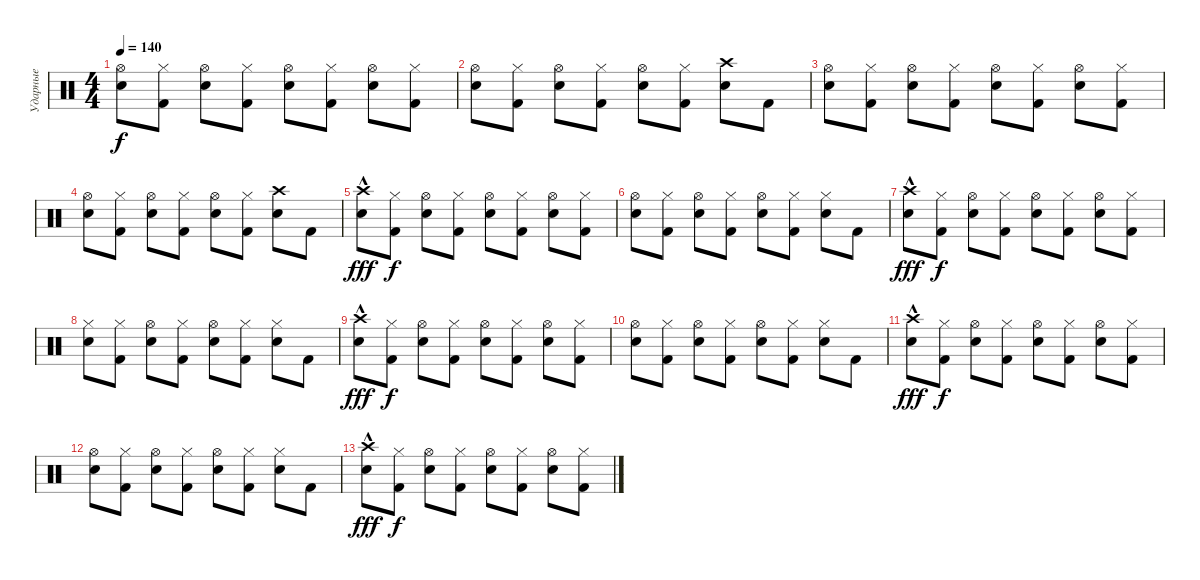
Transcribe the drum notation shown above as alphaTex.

\track ("Ударные" "Ударные") {instrument percussion}
\staff {score}
\articulation defaults
\ts (4 4)
\tempo 140
\clef neutral
\ks c
("Snare (hit) 2" "Hi-Hat (open)").8{dy f} ("Kick (hit) 2" "Hi-Hat (closed)").8 ("Snare (hit) 2" "Hi-Hat (open)").8 ("Kick (hit) 2" "Hi-Hat (closed)").8 ("Snare (hit) 2" "Hi-Hat (open)").8 ("Kick (hit) 2" "Hi-Hat (closed)").8 ("Snare (hit) 2" "Hi-Hat (open)").8 ("Kick (hit) 2" "Hi-Hat (closed)").8 |
("Snare (hit) 2" "Hi-Hat (open)").8 ("Kick (hit) 2" "Hi-Hat (closed)").8 ("Snare (hit) 2" "Hi-Hat (open)").8 ("Kick (hit) 2" "Hi-Hat (closed)").8 ("Snare (hit) 2" "Hi-Hat (open)").8 ("Kick (hit) 2" "Hi-Hat (closed)").8 ("Snare (hit) 2" "Crash high (hit)").8 "Kick (hit) 2".8 |
("Snare (hit) 2" "Hi-Hat (open)").8 ("Kick (hit) 2" "Hi-Hat (closed)").8 ("Snare (hit) 2" "Hi-Hat (open)").8 ("Kick (hit) 2" "Hi-Hat (closed)").8 ("Snare (hit) 2" "Hi-Hat (open)").8 ("Kick (hit) 2" "Hi-Hat (closed)").8 ("Snare (hit) 2" "Hi-Hat (open)").8 ("Kick (hit) 2" "Hi-Hat (closed)").8 |
("Snare (hit) 2" "Hi-Hat (open)").8 ("Kick (hit) 2" "Hi-Hat (closed)").8 ("Snare (hit) 2" "Hi-Hat (open)").8 ("Kick (hit) 2" "Hi-Hat (closed)").8 ("Snare (hit) 2" "Hi-Hat (open)").8 ("Kick (hit) 2" "Hi-Hat (closed)").8 ("Snare (hit) 2" "Crash high (hit)").8 "Kick (hit) 2".8 |
("Snare (hit) 2" "Crash high (hit)"{hac}).8{dy fff} ("Kick (hit) 2" "Hi-Hat (closed)").8{dy f} ("Snare (hit) 2" "Hi-Hat (open)").8 ("Kick (hit) 2" "Hi-Hat (closed)").8 ("Snare (hit) 2" "Hi-Hat (open)").8 ("Kick (hit) 2" "Hi-Hat (closed)").8 ("Snare (hit) 2" "Hi-Hat (open)").8 ("Kick (hit) 2" "Hi-Hat (closed)").8 |
("Snare (hit) 2" "Hi-Hat (open)").8 ("Kick (hit) 2" "Hi-Hat (closed)").8 ("Snare (hit) 2" "Hi-Hat (open)").8 ("Kick (hit) 2" "Hi-Hat (closed)").8 ("Snare (hit) 2" "Hi-Hat (open)").8 ("Kick (hit) 2" "Hi-Hat (closed)").8 ("Snare (hit) 2" "Hi-Hat (closed)").8 "Kick (hit) 2".8 |
("Snare (hit) 2" "Crash high (hit)"{hac}).8{dy fff} ("Kick (hit) 2" "Hi-Hat (closed)").8{dy f} ("Snare (hit) 2" "Hi-Hat (open)").8 ("Kick (hit) 2" "Hi-Hat (closed)").8 ("Snare (hit) 2" "Hi-Hat (open)").8 ("Kick (hit) 2" "Hi-Hat (closed)").8 ("Snare (hit) 2" "Hi-Hat (open)").8 ("Kick (hit) 2" "Hi-Hat (closed)").8 |
("Snare (hit) 2" "Hi-Hat (closed)").8 ("Kick (hit) 2" "Hi-Hat (closed)").8 ("Snare (hit) 2" "Hi-Hat (open)").8 ("Kick (hit) 2" "Hi-Hat (closed)").8 ("Snare (hit) 2" "Hi-Hat (open)").8 ("Kick (hit) 2" "Hi-Hat (closed)").8 ("Snare (hit) 2" "Hi-Hat (closed)").8 "Kick (hit) 2".8 |
("Snare (hit) 2" "Crash high (hit)"{hac}).8{dy fff} ("Kick (hit) 2" "Hi-Hat (closed)").8{dy f} ("Snare (hit) 2" "Hi-Hat (open)").8 ("Kick (hit) 2" "Hi-Hat (closed)").8 ("Snare (hit) 2" "Hi-Hat (open)").8 ("Kick (hit) 2" "Hi-Hat (closed)").8 ("Snare (hit) 2" "Hi-Hat (open)").8 ("Kick (hit) 2" "Hi-Hat (closed)").8 |
("Snare (hit) 2" "Hi-Hat (open)").8 ("Kick (hit) 2" "Hi-Hat (closed)").8 ("Snare (hit) 2" "Hi-Hat (open)").8 ("Kick (hit) 2" "Hi-Hat (closed)").8 ("Snare (hit) 2" "Hi-Hat (open)").8 ("Kick (hit) 2" "Hi-Hat (closed)").8 ("Snare (hit) 2" "Hi-Hat (closed)").8 "Kick (hit) 2".8 |
("Snare (hit) 2" "Crash high (hit)"{hac}).8{dy fff} ("Kick (hit) 2" "Hi-Hat (closed)").8{dy f} ("Snare (hit) 2" "Hi-Hat (open)").8 ("Kick (hit) 2" "Hi-Hat (closed)").8 ("Snare (hit) 2" "Hi-Hat (open)").8 ("Kick (hit) 2" "Hi-Hat (closed)").8 ("Snare (hit) 2" "Hi-Hat (open)").8 ("Kick (hit) 2" "Hi-Hat (closed)").8 |
("Snare (hit) 2" "Hi-Hat (open)").8 ("Kick (hit) 2" "Hi-Hat (closed)").8 ("Snare (hit) 2" "Hi-Hat (open)").8 ("Kick (hit) 2" "Hi-Hat (closed)").8 ("Snare (hit) 2" "Hi-Hat (open)").8 ("Kick (hit) 2" "Hi-Hat (closed)").8 ("Snare (hit) 2" "Hi-Hat (closed)").8 "Kick (hit) 2".8 |
("Snare (hit) 2" "Crash high (hit)"{hac}).8{dy fff} ("Kick (hit) 2" "Hi-Hat (closed)").8{dy f} ("Snare (hit) 2" "Hi-Hat (open)").8 ("Kick (hit) 2" "Hi-Hat (closed)").8 ("Snare (hit) 2" "Hi-Hat (open)").8 ("Kick (hit) 2" "Hi-Hat (closed)").8 ("Snare (hit) 2" "Hi-Hat (open)").8 ("Kick (hit) 2" "Hi-Hat (closed)").8
